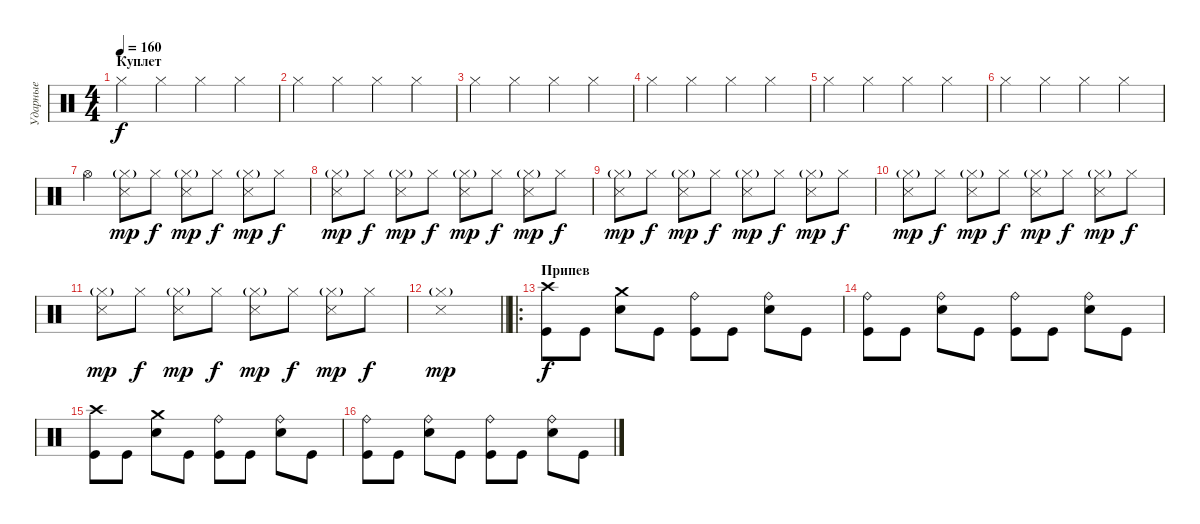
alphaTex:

\track ("Ударные" "Ударные") {instrument percussion}
\staff {score}
\articulation defaults
\ts (4 4)
\section ("" "Куплет")
\tempo 160
\clef neutral
\ks c "Hi-Hat (closed)".4{dy f} "Hi-Hat (closed)".4 "Hi-Hat (closed)".4 "Hi-Hat (closed)".4
|
"Hi-Hat (closed)".4 "Hi-Hat (closed)".4 "Hi-Hat (closed)".4 "Hi-Hat (closed)".4 |
"Hi-Hat (closed)".4 "Hi-Hat (closed)".4 "Hi-Hat (closed)".4 "Hi-Hat (closed)".4 |
"Hi-Hat (closed)".4 "Hi-Hat (closed)".4 "Hi-Hat (closed)".4 "Hi-Hat (closed)".4 |
"Hi-Hat (closed)".4 "Hi-Hat (closed)".4 "Hi-Hat (closed)".4 "Hi-Hat (closed)".4 |
"Hi-Hat (closed)".4 "Hi-Hat (closed)".4 "Hi-Hat (closed)".4 "Hi-Hat (closed)".4 |
"Hi-Hat (open)".4 ("Hi-Hat (closed)"{g} "Snare (side stick) 3").8{dy mp} "Hi-Hat (closed)".8{dy f} ("Hi-Hat (closed)"{g} "Snare (side stick) 3").8{dy mp} "Hi-Hat (closed)".8{dy f} ("Hi-Hat (closed)"{g} "Snare (side stick) 3").8{dy mp} "Hi-Hat (closed)".8{dy f} |
("Hi-Hat (closed)"{g} "Snare (side stick) 3").8{dy mp} "Hi-Hat (closed)".8{dy f} ("Hi-Hat (closed)"{g} "Snare (side stick) 3").8{dy mp} "Hi-Hat (closed)".8{dy f} ("Hi-Hat (closed)"{g} "Snare (side stick) 3").8{dy mp} "Hi-Hat (closed)".8{dy f} ("Hi-Hat (closed)"{g} "Snare (side stick) 3").8{dy mp} "Hi-Hat (closed)".8{dy f} |
("Hi-Hat (closed)"{g} "Snare (side stick) 3").8{dy mp} "Hi-Hat (closed)".8{dy f} ("Hi-Hat (closed)"{g} "Snare (side stick) 3").8{dy mp} "Hi-Hat (closed)".8{dy f} ("Hi-Hat (closed)"{g} "Snare (side stick) 3").8{dy mp} "Hi-Hat (closed)".8{dy f} ("Hi-Hat (closed)"{g} "Snare (side stick) 3").8{dy mp} "Hi-Hat (closed)".8{dy f} |
("Hi-Hat (closed)"{g} "Snare (side stick) 3").8{dy mp} "Hi-Hat (closed)".8{dy f} ("Hi-Hat (closed)"{g} "Snare (side stick) 3").8{dy mp} "Hi-Hat (closed)".8{dy f} ("Hi-Hat (closed)"{g} "Snare (side stick) 3").8{dy mp} "Hi-Hat (closed)".8{dy f} ("Hi-Hat (closed)"{g} "Snare (side stick) 3").8{dy mp} "Hi-Hat (closed)".8{dy f} |
("Hi-Hat (closed)"{g} "Snare (side stick) 3").8{dy mp} "Hi-Hat (closed)".8{dy f} ("Hi-Hat (closed)"{g} "Snare (side stick) 3").8{dy mp} "Hi-Hat (closed)".8{dy f} ("Hi-Hat (closed)"{g} "Snare (side stick) 3").8{dy mp} "Hi-Hat (closed)".8{dy f} ("Hi-Hat (closed)"{g} "Snare (side stick) 3").8{dy mp} "Hi-Hat (closed)".8{dy f} |
\barLineRight lightlight
("Hi-Hat (closed)"{g} "Snare (side stick) 3").1{dy mp} |
\ro
\section ("" "Припев")
("Crash high (hit)" "Kick (hit)").8{dy f} "Kick (hit)".8 ("Crash medium (hit)" "Electric Snare (hit)").8 "Kick (hit)".8 ("Ride (bell)" "Kick (hit)").8 "Kick (hit)".8 ("Ride (bell)" "Electric Snare (hit)").8 "Kick (hit)".8 |
("Ride (bell)" "Kick (hit)").8 "Kick (hit)".8 ("Ride (bell)" "Electric Snare (hit)").8 "Kick (hit)".8 ("Ride (bell)" "Kick (hit)").8 "Kick (hit)".8 ("Ride (bell)" "Electric Snare (hit)").8 "Kick (hit)".8 |
("Crash high (hit)" "Kick (hit)").8 "Kick (hit)".8 ("Crash medium (hit)" "Electric Snare (hit)").8 "Kick (hit)".8 ("Ride (bell)" "Kick (hit)").8 "Kick (hit)".8 ("Ride (bell)" "Electric Snare (hit)").8 "Kick (hit)".8 |
("Ride (bell)" "Kick (hit)").8 "Kick (hit)".8 ("Ride (bell)" "Electric Snare (hit)").8 "Kick (hit)".8 ("Ride (bell)" "Kick (hit)").8 "Kick (hit)".8 ("Ride (bell)" "Electric Snare (hit)").8 "Kick (hit)".8
